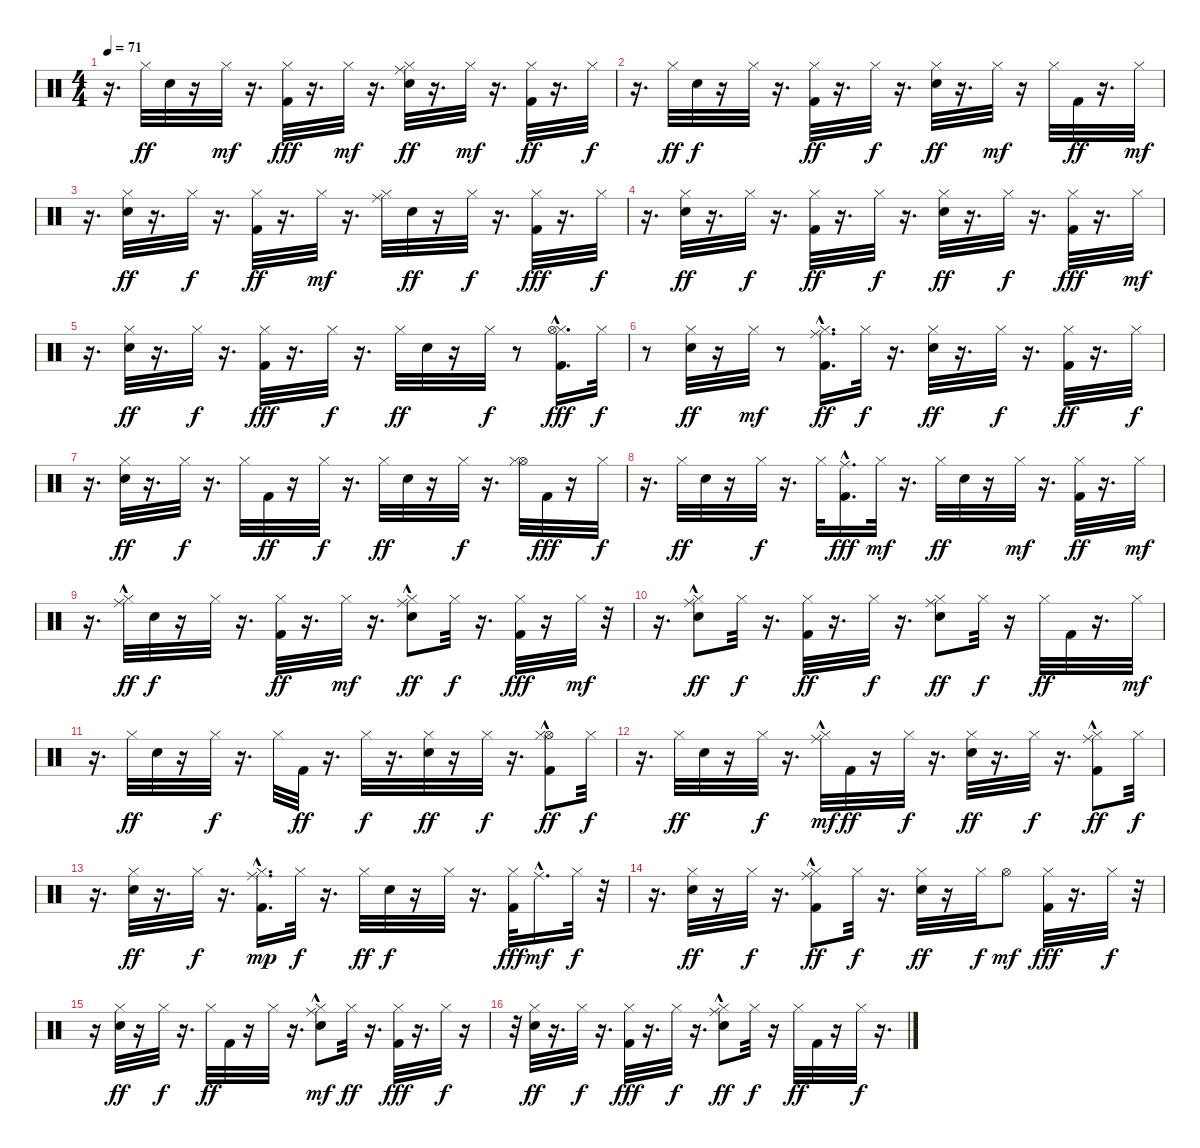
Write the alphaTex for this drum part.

\track "" {instrument percussion}
\staff {score}
\articulation defaults
\ts (4 4)
\tempo 71
\clef neutral
\ks c
r.16{d dy mf} "Hi-Hat (closed)".32{dy ff} "Snare (hit) 2".32 r.16 "Hi-Hat (closed)".32{dy mf} r.16{d} ("Hi-Hat (closed)" "Kick (hit) 2").32{dy fff} r.16{d} "Hi-Hat (closed)".32{dy mf} r.16{d} ("Ride (middle)" "Hi-Hat (closed)" "Snare (hit) 2").32{dy ff} r.16{d} "Hi-Hat (closed)".32{dy mf} r.16{d} ("Hi-Hat (closed)" "Kick (hit) 2").32{dy ff} r.16{d} "Hi-Hat (closed)".32{dy f} |
r.16{d} "Hi-Hat (closed)".32{dy ff} "Snare (hit) 2".32{dy f} r.16 "Hi-Hat (closed)".32 r.16{d} ("Hi-Hat (closed)" "Kick (hit) 2").32{dy ff} r.16{d} "Hi-Hat (closed)".32{dy f} r.16{d} ("Hi-Hat (closed)" "Snare (hit) 2").32{dy ff} r.16{d} "Hi-Hat (closed)".32{dy mf} r.16 "Hi-Hat (closed)".32 "Kick (hit) 2".32{dy ff} r.16{d} "Hi-Hat (closed)".32{dy mf} |
r.16{d} ("Hi-Hat (closed)" "Snare (hit) 2").32{dy ff} r.16{d} "Hi-Hat (closed)".32{dy f} r.16{d} ("Hi-Hat (closed)" "Kick (hit) 2").32{dy ff} r.16{d} "Hi-Hat (closed)".32{dy mf} r.16{d} ("Ride (middle)" "Hi-Hat (closed)").32 "Snare (hit) 2".32{dy ff} r.16 "Hi-Hat (closed)".32{dy f} r.16{d} ("Hi-Hat (closed)" "Kick (hit) 2").32{dy fff} r.16{d} "Hi-Hat (closed)".32{dy f} |
r.16{d} ("Hi-Hat (closed)" "Snare (hit) 2").32{dy ff} r.16{d} "Hi-Hat (closed)".32{dy f} r.16{d} ("Kick (hit) 2" "Hi-Hat (closed)").32{dy ff} r.16{d} "Hi-Hat (closed)".32{dy f} r.16{d} ("Hi-Hat (closed)" "Snare (hit) 2").32{dy ff} r.16{d} "Hi-Hat (closed)".32{dy f} r.16{d} ("Hi-Hat (closed)" "Kick (hit) 2").32{dy fff} r.16{d} "Hi-Hat (closed)".32{dy mf} |
r.16{d} ("Hi-Hat (closed)" "Snare (hit) 2").32{dy ff} r.16{d} "Hi-Hat (closed)".32{dy f} r.16{d} ("Hi-Hat (closed)" "Kick (hit) 2").32{dy fff} r.16{d} "Hi-Hat (closed)".32{dy f} r.16{d} "Hi-Hat (closed)".32{dy ff} "Snare (hit) 2".32 r.16 "Hi-Hat (closed)".32{dy f} r.8 ("Hi-Hat (closed)" "Kick (hit) 2" "Hi-Hat (open)"{hac}).16{d dy fff} "Hi-Hat (closed)".32{dy f} |
r.8 ("Hi-Hat (closed)" "Snare (hit) 2").32{dy ff} r.16 "Hi-Hat (closed)".32{dy mf} r.8 ("Hi-Hat (closed)" "Ride (middle)"{hac} "Kick (hit) 2").16{d dy ff} "Hi-Hat (closed)".32{dy f} r.16{d} ("Hi-Hat (closed)" "Snare (hit) 2").32{dy ff} r.16{d} "Hi-Hat (closed)".32{dy f} r.16{d} ("Hi-Hat (closed)" "Kick (hit) 2").32{dy ff} r.16{d} "Hi-Hat (closed)".32{dy f} |
r.16{d} ("Hi-Hat (closed)" "Snare (hit) 2").32{dy ff} r.16{d} "Hi-Hat (closed)".32{dy f} r.16{d} "Hi-Hat (closed)".32 "Kick (hit) 2".32{dy ff} r.16 "Hi-Hat (closed)".32{dy f} r.16{d} "Hi-Hat (closed)".32{dy ff} "Snare (hit) 2".32 r.16 "Hi-Hat (closed)".32{dy f} r.16{d} ("Hi-Hat (open)" "Hi-Hat (closed)").32 "Kick (hit) 2".32{dy fff} r.16 "Hi-Hat (closed)".32{dy f} |
r.16{d} "Hi-Hat (closed)".32{dy ff} "Snare (hit) 2".32 r.16 "Hi-Hat (closed)".32{dy f} r.16{d} "Hi-Hat (closed)".32 ("Ride (middle)"{hac} "Kick (hit) 2").16{d dy fff} "Hi-Hat (closed)".32{dy mf} r.16{d} "Hi-Hat (closed)".32{dy ff} "Snare (hit) 2".32 r.16 "Hi-Hat (closed)".32{dy mf} r.16{d} ("Hi-Hat (closed)" "Kick (hit) 2").32{dy ff} r.16{d} "Hi-Hat (closed)".32{dy mf} |
r.16{d} ("Ride (middle)"{hac} "Hi-Hat (closed)").32{dy ff} "Snare (hit) 2".32{dy f} r.16 "Hi-Hat (closed)".32 r.16{d} ("Hi-Hat (closed)" "Kick (hit) 2").32{dy ff} r.16{d} "Hi-Hat (closed)".32{dy mf} r.16{d} ("Ride (middle)"{hac} "Hi-Hat (closed)" "Snare (hit) 2").8{dy ff} "Hi-Hat (closed)".32{dy f} r.16{d} ("Hi-Hat (closed)" "Kick (hit) 2").32{dy fff} r.16 "Hi-Hat (closed)".32{dy mf} r.32 |
r.16{d} ("Hi-Hat (closed)" "Ride (middle)"{hac} "Snare (hit) 2").8{dy ff} "Hi-Hat (closed)".32{dy f} r.16{d} ("Hi-Hat (closed)" "Kick (hit) 2").32{dy ff} r.16{d} "Hi-Hat (closed)".32{dy f} r.16{d} ("Ride (middle)" "Hi-Hat (closed)" "Snare (hit) 2").8{dy ff} "Hi-Hat (closed)".32{dy f} r.16 "Hi-Hat (closed)".32{dy ff} "Kick (hit) 2".32 r.16{d} "Hi-Hat (closed)".32{dy mf} |
r.16{d} "Hi-Hat (closed)".32{dy ff} "Snare (hit) 2".32 r.16 "Hi-Hat (closed)".32{dy f} r.16{d} "Hi-Hat (closed)".32 "Kick (hit) 2".32{dy ff} r.16{d} "Hi-Hat (closed)".32{dy f} r.16{d} ("Hi-Hat (closed)" "Snare (hit) 2").32{dy ff} r.16 "Hi-Hat (closed)".32{dy f} r.16{d} ("Hi-Hat (open)"{hac} "Kick (hit) 2" "Hi-Hat (closed)").8{dy ff} "Hi-Hat (closed)".32{dy f} |
r.16{d} "Hi-Hat (closed)".32{dy ff} "Snare (hit) 2".32 r.16 "Hi-Hat (closed)".32{dy f} r.16{d} ("Hi-Hat (closed)" "Ride (middle)"{hac}).32{dy mf} "Kick (hit) 2".32{dy ff} r.16 "Hi-Hat (closed)".32{dy f} r.16{d} ("Hi-Hat (closed)" "Snare (hit) 2").32{dy ff} r.16{d} "Hi-Hat (closed)".32{dy f} r.16{d} ("Hi-Hat (closed)" "Ride (middle)"{hac} "Kick (hit) 2").8{dy ff} "Hi-Hat (closed)".32{dy f} |
r.16{d} ("Hi-Hat (closed)" "Snare (hit) 2").32{dy ff} r.16{d} "Hi-Hat (closed)".32{dy f} r.16{d} ("Hi-Hat (closed)" "Kick (hit) 2" "Ride (middle)"{hac}).16{d dy mp} "Hi-Hat (closed)".32{dy f} r.16{d} "Hi-Hat (closed)".32{dy ff} "Snare (hit) 2".32{dy f} r.16 "Hi-Hat (closed)".32 r.16{d} ("Hi-Hat (closed)" "Kick (hit) 2").32{dy fff} "Ride (middle)"{hac}.16{d dy mf} "Hi-Hat (closed)".32{dy f} r.32 |
r.16{d} ("Hi-Hat (closed)" "Snare (hit) 2").32{dy ff} r.16 "Hi-Hat (closed)".32{dy f} r.16{d} ("Ride (middle)"{hac} "Kick (hit) 2" "Hi-Hat (closed)").8{dy ff} "Hi-Hat (closed)".32{dy f} r.16{d} ("Hi-Hat (closed)" "Snare (hit) 2").32{dy ff} r.16 "Hi-Hat (closed)".32{dy f} "Hi-Hat (open)".8{dy mf} ("Hi-Hat (closed)" "Kick (hit) 2").32{dy fff} r.16{d} "Hi-Hat (closed)".32{dy f} r.32 |
r.16 ("Hi-Hat (closed)" "Snare (hit) 2").32{dy ff} r.16 "Hi-Hat (closed)".32{dy f} r.16{d} "Hi-Hat (closed)".32{dy ff} "Kick (hit) 2".32 r.16 "Hi-Hat (closed)".32 r.16{d} ("Hi-Hat (closed)" "Ride (middle)"{hac} "Snare (hit) 2").8{dy mf} "Hi-Hat (closed)".32{dy ff} r.16{d} ("Hi-Hat (closed)" "Kick (hit) 2").32{dy fff} r.16{d} "Hi-Hat (closed)".32{dy f} r.16 |
r.32 ("Hi-Hat (closed)" "Snare (hit) 2").32{dy ff} r.16{d} "Hi-Hat (closed)".32{dy f} r.16{d} ("Hi-Hat (closed)" "Kick (hit) 2").32{dy fff} r.16{d} "Hi-Hat (closed)".32{dy f} r.16{d} ("Ride (middle)"{hac} "Hi-Hat (closed)" "Snare (hit) 2").8{dy ff} "Hi-Hat (closed)".32{dy f} r.16 "Hi-Hat (closed)".32{dy ff} "Kick (hit) 2".32 r.16 "Hi-Hat (closed)".32{dy f} r.16{d}
